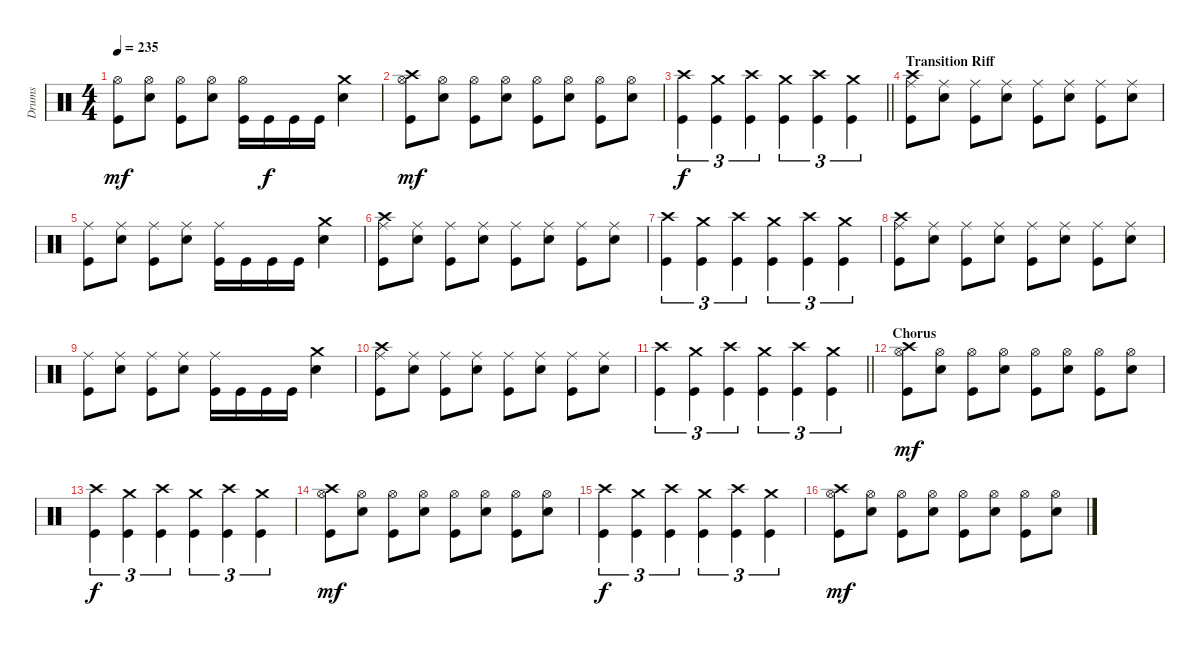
\track ("Drums" "Drums") {instrument percussion}
\staff {score}
\articulation defaults
\ts (4 4)
\tempo 235
\clef neutral
\ks c
("Hi-Hat (open)" "Kick (hit)").8{dy mf} ("Hi-Hat (open)" "Electric Snare (hit)").8 ("Hi-Hat (open)" "Kick (hit)").8 ("Hi-Hat (open)" "Electric Snare (hit)").8 ("Hi-Hat (open)" "Kick (hit)").16 "Kick (hit)".16{dy f} "Kick (hit)".16 "Kick (hit)".16 ("Crash medium (hit)" "Electric Snare (hit)").4 |
("Crash high (hit)" "Hi-Hat (open)" "Kick (hit)").8{dy mf} ("Hi-Hat (open)" "Electric Snare (hit)").8 ("Hi-Hat (open)" "Kick (hit)").8 ("Hi-Hat (open)" "Electric Snare (hit)").8 ("Hi-Hat (open)" "Kick (hit)").8 ("Hi-Hat (open)" "Electric Snare (hit)").8 ("Hi-Hat (open)" "Kick (hit)").8 ("Hi-Hat (open)" "Electric Snare (hit)").8 |
\barLineRight lightlight
("Crash high (hit)" "Kick (hit)").4{tu (3 2) dy f} ("Crash medium (hit)" "Kick (hit)").4{tu (3 2)} ("Crash high (hit)" "Kick (hit)").4{tu (3 2)} ("Crash medium (hit)" "Kick (hit)").4{tu (3 2)} ("Crash high (hit)" "Kick (hit)").4{tu (3 2)} ("Crash medium (hit)" "Kick (hit)").4{tu (3 2)} |
\section ("" "Transition Riff")
("Crash high (hit)" "Ride (middle)" "Kick (hit)").8 ("Ride (middle)" "Electric Snare (hit)").8 ("Ride (middle)" "Kick (hit)").8 ("Ride (middle)" "Electric Snare (hit)").8 ("Ride (middle)" "Kick (hit)").8 ("Ride (middle)" "Electric Snare (hit)").8 ("Ride (middle)" "Kick (hit)").8 ("Ride (middle)" "Electric Snare (hit)").8 |
("Ride (middle)" "Kick (hit)").8 ("Ride (middle)" "Electric Snare (hit)").8 ("Ride (middle)" "Kick (hit)").8 ("Ride (middle)" "Electric Snare (hit)").8 ("Ride (middle)" "Kick (hit)").16 "Kick (hit)".16 "Kick (hit)".16 "Kick (hit)".16 ("Crash medium (hit)" "Electric Snare (hit)").4 |
("Crash high (hit)" "Ride (middle)" "Kick (hit)").8 ("Ride (middle)" "Electric Snare (hit)").8 ("Ride (middle)" "Kick (hit)").8 ("Ride (middle)" "Electric Snare (hit)").8 ("Ride (middle)" "Kick (hit)").8 ("Ride (middle)" "Electric Snare (hit)").8 ("Ride (middle)" "Kick (hit)").8 ("Ride (middle)" "Electric Snare (hit)").8 |
("Crash high (hit)" "Kick (hit)").4{tu (3 2)} ("Crash medium (hit)" "Kick (hit)").4{tu (3 2)} ("Crash high (hit)" "Kick (hit)").4{tu (3 2)} ("Crash medium (hit)" "Kick (hit)").4{tu (3 2)} ("Crash high (hit)" "Kick (hit)").4{tu (3 2)} ("Crash medium (hit)" "Kick (hit)").4{tu (3 2)} |
("Crash high (hit)" "Ride (middle)" "Kick (hit)").8 ("Ride (middle)" "Electric Snare (hit)").8 ("Ride (middle)" "Kick (hit)").8 ("Ride (middle)" "Electric Snare (hit)").8 ("Ride (middle)" "Kick (hit)").8 ("Ride (middle)" "Electric Snare (hit)").8 ("Ride (middle)" "Kick (hit)").8 ("Ride (middle)" "Electric Snare (hit)").8 |
("Ride (middle)" "Kick (hit)").8 ("Ride (middle)" "Electric Snare (hit)").8 ("Ride (middle)" "Kick (hit)").8 ("Ride (middle)" "Electric Snare (hit)").8 ("Ride (middle)" "Kick (hit)").16 "Kick (hit)".16 "Kick (hit)".16 "Kick (hit)".16 ("Crash medium (hit)" "Electric Snare (hit)").4 |
("Crash high (hit)" "Ride (middle)" "Kick (hit)").8 ("Ride (middle)" "Electric Snare (hit)").8 ("Ride (middle)" "Kick (hit)").8 ("Ride (middle)" "Electric Snare (hit)").8 ("Ride (middle)" "Kick (hit)").8 ("Ride (middle)" "Electric Snare (hit)").8 ("Ride (middle)" "Kick (hit)").8 ("Ride (middle)" "Electric Snare (hit)").8 |
\barLineRight lightlight
("Crash high (hit)" "Kick (hit)").4{tu (3 2)} ("Crash medium (hit)" "Kick (hit)").4{tu (3 2)} ("Crash high (hit)" "Kick (hit)").4{tu (3 2)} ("Crash medium (hit)" "Kick (hit)").4{tu (3 2)} ("Crash high (hit)" "Kick (hit)").4{tu (3 2)} ("Crash medium (hit)" "Kick (hit)").4{tu (3 2)} |
\section ("" "Chorus")
("Crash high (hit)" "Hi-Hat (open)" "Kick (hit)").8{dy mf} ("Hi-Hat (open)" "Electric Snare (hit)").8 ("Hi-Hat (open)" "Kick (hit)").8 ("Hi-Hat (open)" "Electric Snare (hit)").8 ("Hi-Hat (open)" "Kick (hit)").8 ("Hi-Hat (open)" "Electric Snare (hit)").8 ("Hi-Hat (open)" "Kick (hit)").8 ("Hi-Hat (open)" "Electric Snare (hit)").8 |
("Crash high (hit)" "Kick (hit)").4{tu (3 2) dy f} ("Crash medium (hit)" "Kick (hit)").4{tu (3 2)} ("Crash high (hit)" "Kick (hit)").4{tu (3 2)} ("Crash medium (hit)" "Kick (hit)").4{tu (3 2)} ("Crash high (hit)" "Kick (hit)").4{tu (3 2)} ("Crash medium (hit)" "Kick (hit)").4{tu (3 2)} |
("Crash high (hit)" "Hi-Hat (open)" "Kick (hit)").8{dy mf} ("Hi-Hat (open)" "Electric Snare (hit)").8 ("Hi-Hat (open)" "Kick (hit)").8 ("Hi-Hat (open)" "Electric Snare (hit)").8 ("Hi-Hat (open)" "Kick (hit)").8 ("Hi-Hat (open)" "Electric Snare (hit)").8 ("Hi-Hat (open)" "Kick (hit)").8 ("Hi-Hat (open)" "Electric Snare (hit)").8 |
("Crash high (hit)" "Kick (hit)").4{tu (3 2) dy f} ("Crash medium (hit)" "Kick (hit)").4{tu (3 2)} ("Crash high (hit)" "Kick (hit)").4{tu (3 2)} ("Crash medium (hit)" "Kick (hit)").4{tu (3 2)} ("Crash high (hit)" "Kick (hit)").4{tu (3 2)} ("Crash medium (hit)" "Kick (hit)").4{tu (3 2)} |
("Crash high (hit)" "Hi-Hat (open)" "Kick (hit)").8{dy mf} ("Hi-Hat (open)" "Electric Snare (hit)").8 ("Hi-Hat (open)" "Kick (hit)").8 ("Hi-Hat (open)" "Electric Snare (hit)").8 ("Hi-Hat (open)" "Kick (hit)").8 ("Hi-Hat (open)" "Electric Snare (hit)").8 ("Hi-Hat (open)" "Kick (hit)").8 ("Hi-Hat (open)" "Electric Snare (hit)").8
